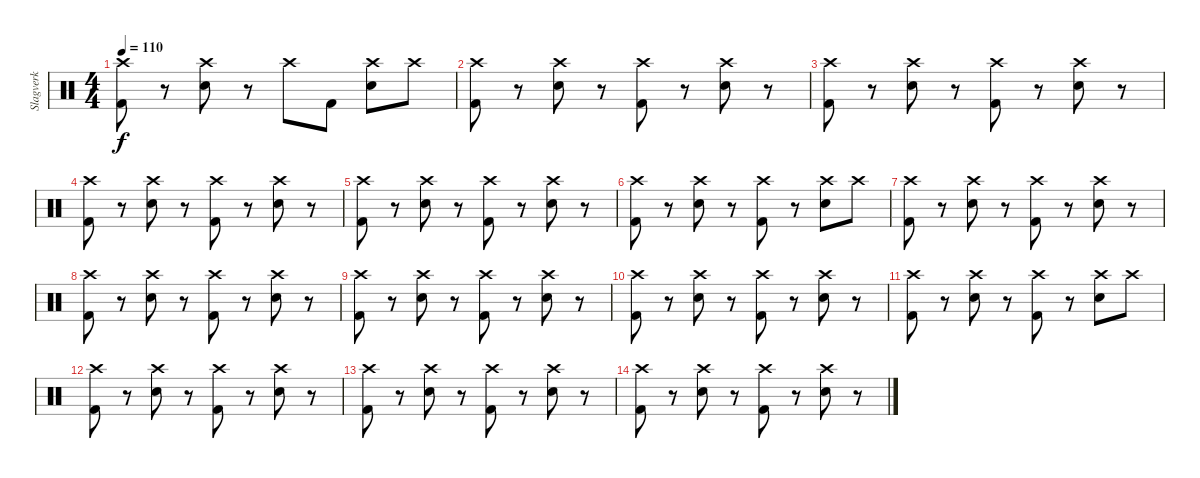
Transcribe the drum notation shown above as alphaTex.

\track ("Slagverk" "Slagverk") {instrument percussion}
\staff {score}
\articulation defaults
\ts (4 4)
\tempo 110
\clef neutral
\ks c
("Crash high (hit)" "Kick (hit) 2").8{dy f} r.8 ("Crash high (hit)" "Electric Snare (hit)").8 r.8 "Crash high (hit)".8 "Kick (hit) 2".8 ("Crash high (hit)" "Electric Snare (hit)").8 "Crash high (hit)".8 |
("Crash high (hit)" "Kick (hit) 2").8 r.8 ("Crash high (hit)" "Electric Snare (hit)").8 r.8 ("Crash high (hit)" "Kick (hit) 2").8 r.8 ("Crash high (hit)" "Electric Snare (hit)").8 r.8 |
("Crash high (hit)" "Kick (hit) 2").8 r.8 ("Crash high (hit)" "Electric Snare (hit)").8 r.8 ("Crash high (hit)" "Kick (hit) 2").8 r.8 ("Crash high (hit)" "Electric Snare (hit)").8 r.8 |
("Crash high (hit)" "Kick (hit) 2").8 r.8 ("Crash high (hit)" "Electric Snare (hit)").8 r.8 ("Crash high (hit)" "Kick (hit) 2").8 r.8 ("Crash high (hit)" "Electric Snare (hit)").8 r.8 |
("Crash high (hit)" "Kick (hit) 2").8 r.8 ("Crash high (hit)" "Electric Snare (hit)").8 r.8 ("Crash high (hit)" "Kick (hit) 2").8 r.8 ("Crash high (hit)" "Electric Snare (hit)").8 r.8 |
("Crash high (hit)" "Kick (hit) 2").8 r.8 ("Crash high (hit)" "Electric Snare (hit)").8 r.8 ("Crash high (hit)" "Kick (hit) 2").8 r.8 ("Crash high (hit)" "Electric Snare (hit)").8 "Crash high (hit)".8 |
("Crash high (hit)" "Kick (hit) 2").8 r.8 ("Crash high (hit)" "Electric Snare (hit)").8 r.8 ("Crash high (hit)" "Kick (hit) 2").8 r.8 ("Crash high (hit)" "Electric Snare (hit)").8 r.8 |
("Crash high (hit)" "Kick (hit) 2").8 r.8 ("Crash high (hit)" "Electric Snare (hit)").8 r.8 ("Crash high (hit)" "Kick (hit) 2").8 r.8 ("Crash high (hit)" "Electric Snare (hit)").8 r.8 |
("Crash high (hit)" "Kick (hit) 2").8 r.8 ("Crash high (hit)" "Electric Snare (hit)").8 r.8 ("Crash high (hit)" "Kick (hit) 2").8 r.8 ("Crash high (hit)" "Electric Snare (hit)").8 r.8 |
("Crash high (hit)" "Kick (hit) 2").8 r.8 ("Crash high (hit)" "Electric Snare (hit)").8 r.8 ("Crash high (hit)" "Kick (hit) 2").8 r.8 ("Crash high (hit)" "Electric Snare (hit)").8 r.8 |
("Crash high (hit)" "Kick (hit) 2").8 r.8 ("Crash high (hit)" "Electric Snare (hit)").8 r.8 ("Crash high (hit)" "Kick (hit) 2").8 r.8 ("Crash high (hit)" "Electric Snare (hit)").8 "Crash high (hit)".8 |
("Crash high (hit)" "Kick (hit) 2").8 r.8 ("Crash high (hit)" "Electric Snare (hit)").8 r.8 ("Crash high (hit)" "Kick (hit) 2").8 r.8 ("Crash high (hit)" "Electric Snare (hit)").8 r.8 |
("Crash high (hit)" "Kick (hit) 2").8 r.8 ("Crash high (hit)" "Electric Snare (hit)").8 r.8 ("Crash high (hit)" "Kick (hit) 2").8 r.8 ("Crash high (hit)" "Electric Snare (hit)").8 r.8 |
("Crash high (hit)" "Kick (hit) 2").8 r.8 ("Crash high (hit)" "Electric Snare (hit)").8 r.8 ("Crash high (hit)" "Kick (hit) 2").8 r.8 ("Crash high (hit)" "Electric Snare (hit)").8 r.8
